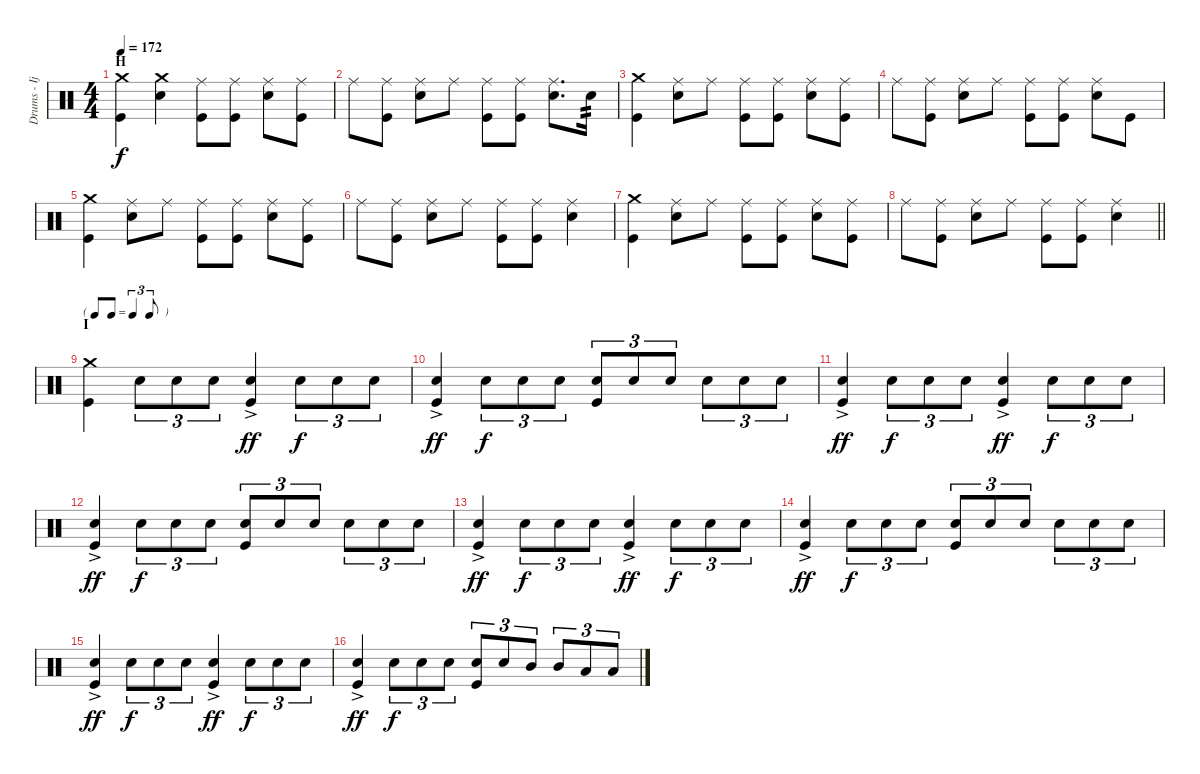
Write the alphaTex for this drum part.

\track ("Drums - Ijichi" "Drums - Ij") {instrument percussion}
\staff {score}
\articulation defaults
\ts (4 4)
\section ("" "H")
\tempo 172
\clef neutral
\ks c
("Crash medium (hit)" "Kick (hit)").4{dy f} ("Crash medium (hit)" "Electric Snare (hit)").4 ("Ride (middle)" "Kick (hit)").8 ("Ride (middle)" "Kick (hit)").8 ("Ride (middle)" "Electric Snare (hit)").8 ("Ride (middle)" "Kick (hit)").8 |
"Ride (middle)".8 ("Ride (middle)" "Kick (hit)").8 ("Ride (middle)" "Electric Snare (hit)").8 "Ride (middle)".8 ("Ride (middle)" "Kick (hit)").8 ("Ride (middle)" "Kick (hit)").8 ("Ride (middle)" "Electric Snare (hit)").8{d} "Electric Snare (hit)".16{tp 2} |
("Crash medium (hit)" "Kick (hit)").4 ("Ride (middle)" "Electric Snare (hit)").8 "Ride (middle)".8 ("Ride (middle)" "Kick (hit)").8 ("Ride (middle)" "Kick (hit)").8 ("Ride (middle)" "Electric Snare (hit)").8 ("Ride (middle)" "Kick (hit)").8 |
"Ride (middle)".8 ("Ride (middle)" "Kick (hit)").8 ("Ride (middle)" "Electric Snare (hit)").8 "Ride (middle)".8 ("Ride (middle)" "Kick (hit)").8 ("Ride (middle)" "Kick (hit)").8 ("Ride (middle)" "Electric Snare (hit)").8 "Kick (hit)".8 |
("Crash medium (hit)" "Kick (hit)").4 ("Ride (middle)" "Electric Snare (hit)").8 "Ride (middle)".8 ("Ride (middle)" "Kick (hit)").8 ("Ride (middle)" "Kick (hit)").8 ("Ride (middle)" "Electric Snare (hit)").8 ("Ride (middle)" "Kick (hit)").8 |
"Ride (middle)".8 ("Ride (middle)" "Kick (hit)").8 ("Ride (middle)" "Electric Snare (hit)").8 "Ride (middle)".8 ("Ride (middle)" "Kick (hit)").8 ("Ride (middle)" "Kick (hit)").8 ("Ride (middle)" "Electric Snare (hit)").4 |
("Crash medium (hit)" "Kick (hit)").4 ("Ride (middle)" "Electric Snare (hit)").8 "Ride (middle)".8 ("Ride (middle)" "Kick (hit)").8 ("Ride (middle)" "Kick (hit)").8 ("Ride (middle)" "Electric Snare (hit)").8 ("Ride (middle)" "Kick (hit)").8 |
\barLineRight lightlight "Ride (middle)".8
("Ride (middle)" "Kick (hit)").8 ("Ride (middle)" "Electric Snare (hit)").8 "Ride (middle)".8 ("Ride (middle)" "Kick (hit)").8 ("Ride (middle)" "Kick (hit)").8 ("Ride (middle)" "Electric Snare (hit)").4 |
\tf triplet8th
\section ("" "I")
("Crash medium (hit)" "Kick (hit)").4 "Electric Snare (hit)".8{tu (3 2)} "Electric Snare (hit)".8{tu (3 2)} "Electric Snare (hit)".8{tu (3 2)} ("Electric Snare (hit)"{ac} "Kick (hit)").4{dy ff} "Electric Snare (hit)".8{tu (3 2) dy f} "Electric Snare (hit)".8{tu (3 2)} "Electric Snare (hit)".8{tu (3 2)} |
("Electric Snare (hit)"{ac} "Kick (hit)").4{dy ff} "Electric Snare (hit)".8{tu (3 2) dy f} "Electric Snare (hit)".8{tu (3 2)} "Electric Snare (hit)".8{tu (3 2)} ("Electric Snare (hit)" "Kick (hit)").8{tu (3 2)} "Electric Snare (hit)".8{tu (3 2)} "Electric Snare (hit)".8{tu (3 2)} "Electric Snare (hit)".8{tu (3 2)} "Electric Snare (hit)".8{tu (3 2)} "Electric Snare (hit)".8{tu (3 2)} |
("Electric Snare (hit)"{ac} "Kick (hit)").4{dy ff} "Electric Snare (hit)".8{tu (3 2) dy f} "Electric Snare (hit)".8{tu (3 2)} "Electric Snare (hit)".8{tu (3 2)} ("Electric Snare (hit)"{ac} "Kick (hit)").4{dy ff} "Electric Snare (hit)".8{tu (3 2) dy f} "Electric Snare (hit)".8{tu (3 2)} "Electric Snare (hit)".8{tu (3 2)} |
("Electric Snare (hit)"{ac} "Kick (hit)").4{dy ff} "Electric Snare (hit)".8{tu (3 2) dy f} "Electric Snare (hit)".8{tu (3 2)} "Electric Snare (hit)".8{tu (3 2)} ("Electric Snare (hit)" "Kick (hit)").8{tu (3 2)} "Electric Snare (hit)".8{tu (3 2)} "Electric Snare (hit)".8{tu (3 2)} "Electric Snare (hit)".8{tu (3 2)} "Electric Snare (hit)".8{tu (3 2)} "Electric Snare (hit)".8{tu (3 2)} |
("Electric Snare (hit)"{ac} "Kick (hit)").4{dy ff} "Electric Snare (hit)".8{tu (3 2) dy f} "Electric Snare (hit)".8{tu (3 2)} "Electric Snare (hit)".8{tu (3 2)} ("Electric Snare (hit)"{ac} "Kick (hit)").4{dy ff} "Electric Snare (hit)".8{tu (3 2) dy f} "Electric Snare (hit)".8{tu (3 2)} "Electric Snare (hit)".8{tu (3 2)} |
("Electric Snare (hit)"{ac} "Kick (hit)").4{dy ff} "Electric Snare (hit)".8{tu (3 2) dy f} "Electric Snare (hit)".8{tu (3 2)} "Electric Snare (hit)".8{tu (3 2)} ("Electric Snare (hit)" "Kick (hit)").8{tu (3 2)} "Electric Snare (hit)".8{tu (3 2)} "Electric Snare (hit)".8{tu (3 2)} "Electric Snare (hit)".8{tu (3 2)} "Electric Snare (hit)".8{tu (3 2)} "Electric Snare (hit)".8{tu (3 2)} |
("Electric Snare (hit)"{ac} "Kick (hit)").4{dy ff} "Electric Snare (hit)".8{tu (3 2) dy f} "Electric Snare (hit)".8{tu (3 2)} "Electric Snare (hit)".8{tu (3 2)} ("Electric Snare (hit)"{ac} "Kick (hit)").4{dy ff} "Electric Snare (hit)".8{tu (3 2) dy f} "Electric Snare (hit)".8{tu (3 2)} "Electric Snare (hit)".8{tu (3 2)} |
("Electric Snare (hit)"{ac} "Kick (hit)").4{dy ff} "Electric Snare (hit)".8{tu (3 2) dy f} "Electric Snare (hit)".8{tu (3 2)} "Electric Snare (hit)".8{tu (3 2)} ("Electric Snare (hit)" "Kick (hit)").8{tu (3 2)} "Electric Snare (hit)".8{tu (3 2)} "Mid Tom (hit)".8{tu (3 2)} "Mid Tom (hit)".8{tu (3 2)} "Low Tom (hit)".8{tu (3 2)} "Low Tom (hit)".8{tu (3 2)}
